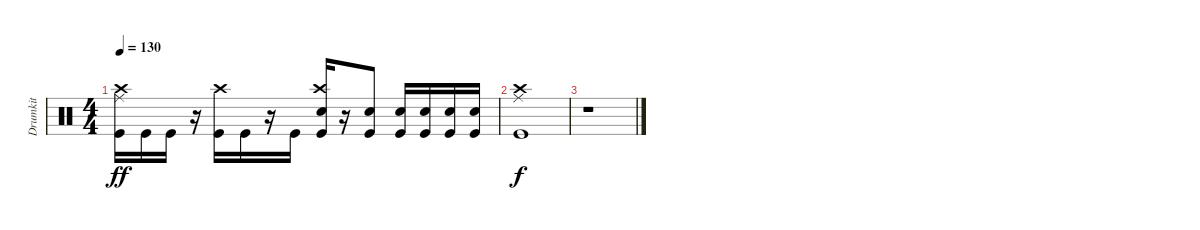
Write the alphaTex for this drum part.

\track ("Drumkit" "Drumkit") {instrument percussion}
\staff {score}
\articulation defaults
\ts (4 4)
\tempo 130
\clef neutral
\ks c
("Kick (hit)" "Crash high (hit)" "Ride (middle)").16{dy ff} "Kick (hit)".16 "Kick (hit)".16 r.16 ("Kick (hit)" "Crash high (hit)").16 "Kick (hit)".16 r.16 "Kick (hit)".16 ("Kick (hit)" "Crash high (hit)" "Snare (hit) 2").16 r.16 ("Kick (hit)" "Snare (hit) 2").8 ("Kick (hit)" "Snare (hit) 2").16 ("Kick (hit)" "Snare (hit) 2").16 ("Kick (hit)" "Snare (hit) 2").16 ("Kick (hit)" "Snare (hit) 2").16 |
("Kick (hit)" "Ride (middle)" "Crash high (hit)").1{dy f} |
r.1
